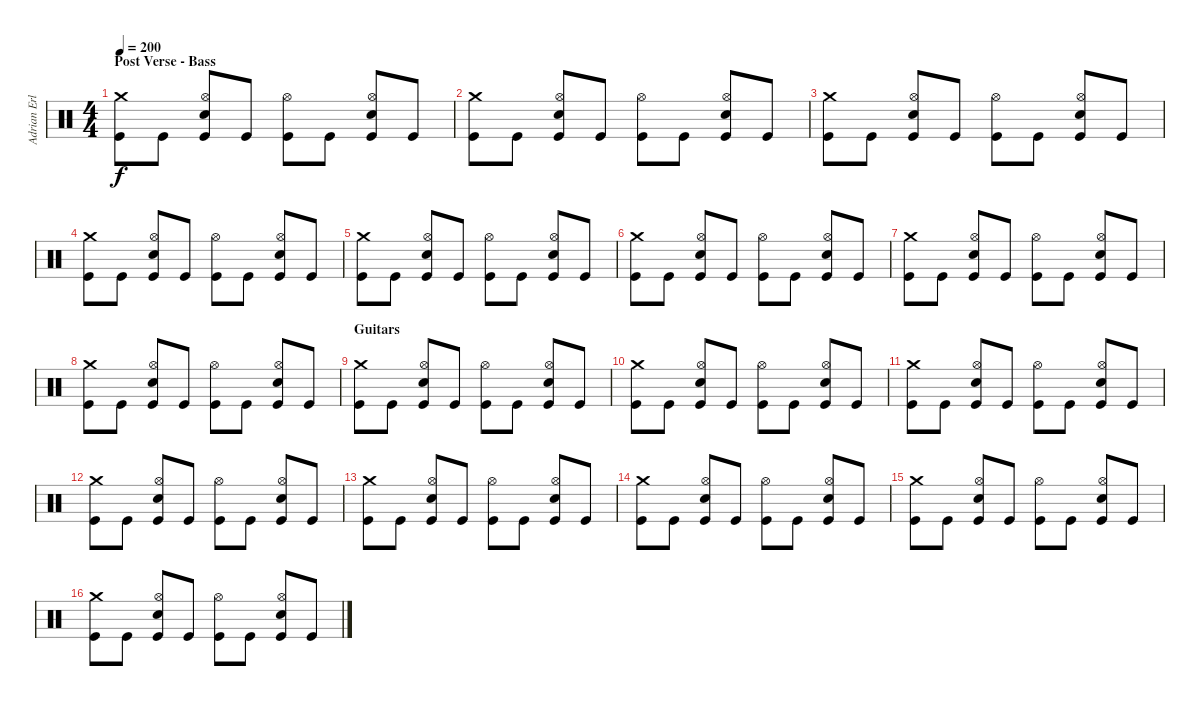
\track ("Adrian Erlandsson" "Adrian Erl") {instrument percussion}
\staff {score}
\articulation defaults
\ts (4 4)
\section ("" "Post Verse - Bass")
\tempo 200
\clef neutral
\ks c
("Crash medium (hit)" "Kick (hit)").8{dy f} "Kick (hit)".8 ("Hi-Hat (open)" "Electric Snare (hit)" "Kick (hit)").8 "Kick (hit)".8 ("Hi-Hat (open)" "Kick (hit)").8 "Kick (hit)".8 ("Hi-Hat (open)" "Electric Snare (hit)" "Kick (hit)").8 "Kick (hit)".8 |
("Crash medium (hit)" "Kick (hit)").8 "Kick (hit)".8 ("Hi-Hat (open)" "Electric Snare (hit)" "Kick (hit)").8 "Kick (hit)".8 ("Hi-Hat (open)" "Kick (hit)").8 "Kick (hit)".8 ("Hi-Hat (open)" "Electric Snare (hit)" "Kick (hit)").8 "Kick (hit)".8 |
("Crash medium (hit)" "Kick (hit)").8 "Kick (hit)".8 ("Hi-Hat (open)" "Electric Snare (hit)" "Kick (hit)").8 "Kick (hit)".8 ("Hi-Hat (open)" "Kick (hit)").8 "Kick (hit)".8 ("Hi-Hat (open)" "Electric Snare (hit)" "Kick (hit)").8 "Kick (hit)".8 |
("Crash medium (hit)" "Kick (hit)").8 "Kick (hit)".8 ("Hi-Hat (open)" "Electric Snare (hit)" "Kick (hit)").8 "Kick (hit)".8 ("Hi-Hat (open)" "Kick (hit)").8 "Kick (hit)".8 ("Hi-Hat (open)" "Electric Snare (hit)" "Kick (hit)").8 "Kick (hit)".8 |
("Crash medium (hit)" "Kick (hit)").8 "Kick (hit)".8 ("Hi-Hat (open)" "Electric Snare (hit)" "Kick (hit)").8 "Kick (hit)".8 ("Hi-Hat (open)" "Kick (hit)").8 "Kick (hit)".8 ("Hi-Hat (open)" "Electric Snare (hit)" "Kick (hit)").8 "Kick (hit)".8 |
("Crash medium (hit)" "Kick (hit)").8 "Kick (hit)".8 ("Hi-Hat (open)" "Electric Snare (hit)" "Kick (hit)").8 "Kick (hit)".8 ("Hi-Hat (open)" "Kick (hit)").8 "Kick (hit)".8 ("Hi-Hat (open)" "Electric Snare (hit)" "Kick (hit)").8 "Kick (hit)".8 |
("Crash medium (hit)" "Kick (hit)").8 "Kick (hit)".8 ("Hi-Hat (open)" "Electric Snare (hit)" "Kick (hit)").8 "Kick (hit)".8 ("Hi-Hat (open)" "Kick (hit)").8 "Kick (hit)".8 ("Hi-Hat (open)" "Electric Snare (hit)" "Kick (hit)").8 "Kick (hit)".8 |
("Crash medium (hit)" "Kick (hit)").8 "Kick (hit)".8 ("Hi-Hat (open)" "Electric Snare (hit)" "Kick (hit)").8 "Kick (hit)".8 ("Hi-Hat (open)" "Kick (hit)").8 "Kick (hit)".8 ("Hi-Hat (open)" "Electric Snare (hit)" "Kick (hit)").8 "Kick (hit)".8 |
\section ("" "Guitars")
("Crash medium (hit)" "Kick (hit)").8 "Kick (hit)".8 ("Hi-Hat (open)" "Electric Snare (hit)" "Kick (hit)").8 "Kick (hit)".8 ("Hi-Hat (open)" "Kick (hit)").8 "Kick (hit)".8 ("Hi-Hat (open)" "Electric Snare (hit)" "Kick (hit)").8 "Kick (hit)".8 |
("Crash medium (hit)" "Kick (hit)").8 "Kick (hit)".8 ("Hi-Hat (open)" "Electric Snare (hit)" "Kick (hit)").8 "Kick (hit)".8 ("Hi-Hat (open)" "Kick (hit)").8 "Kick (hit)".8 ("Hi-Hat (open)" "Electric Snare (hit)" "Kick (hit)").8 "Kick (hit)".8 |
("Crash medium (hit)" "Kick (hit)").8 "Kick (hit)".8 ("Hi-Hat (open)" "Electric Snare (hit)" "Kick (hit)").8 "Kick (hit)".8 ("Hi-Hat (open)" "Kick (hit)").8 "Kick (hit)".8 ("Hi-Hat (open)" "Electric Snare (hit)" "Kick (hit)").8 "Kick (hit)".8 |
("Crash medium (hit)" "Kick (hit)").8 "Kick (hit)".8 ("Hi-Hat (open)" "Electric Snare (hit)" "Kick (hit)").8 "Kick (hit)".8 ("Hi-Hat (open)" "Kick (hit)").8 "Kick (hit)".8 ("Hi-Hat (open)" "Electric Snare (hit)" "Kick (hit)").8 "Kick (hit)".8 |
("Crash medium (hit)" "Kick (hit)").8 "Kick (hit)".8 ("Hi-Hat (open)" "Electric Snare (hit)" "Kick (hit)").8 "Kick (hit)".8 ("Hi-Hat (open)" "Kick (hit)").8 "Kick (hit)".8 ("Hi-Hat (open)" "Electric Snare (hit)" "Kick (hit)").8 "Kick (hit)".8 |
("Crash medium (hit)" "Kick (hit)").8 "Kick (hit)".8 ("Hi-Hat (open)" "Electric Snare (hit)" "Kick (hit)").8 "Kick (hit)".8 ("Hi-Hat (open)" "Kick (hit)").8 "Kick (hit)".8 ("Hi-Hat (open)" "Electric Snare (hit)" "Kick (hit)").8 "Kick (hit)".8 |
("Crash medium (hit)" "Kick (hit)").8 "Kick (hit)".8 ("Hi-Hat (open)" "Electric Snare (hit)" "Kick (hit)").8 "Kick (hit)".8 ("Hi-Hat (open)" "Kick (hit)").8 "Kick (hit)".8 ("Hi-Hat (open)" "Electric Snare (hit)" "Kick (hit)").8 "Kick (hit)".8 |
("Crash medium (hit)" "Kick (hit)").8 "Kick (hit)".8 ("Hi-Hat (open)" "Electric Snare (hit)" "Kick (hit)").8 "Kick (hit)".8 ("Hi-Hat (open)" "Kick (hit)").8 "Kick (hit)".8 ("Hi-Hat (open)" "Electric Snare (hit)" "Kick (hit)").8 "Kick (hit)".8
